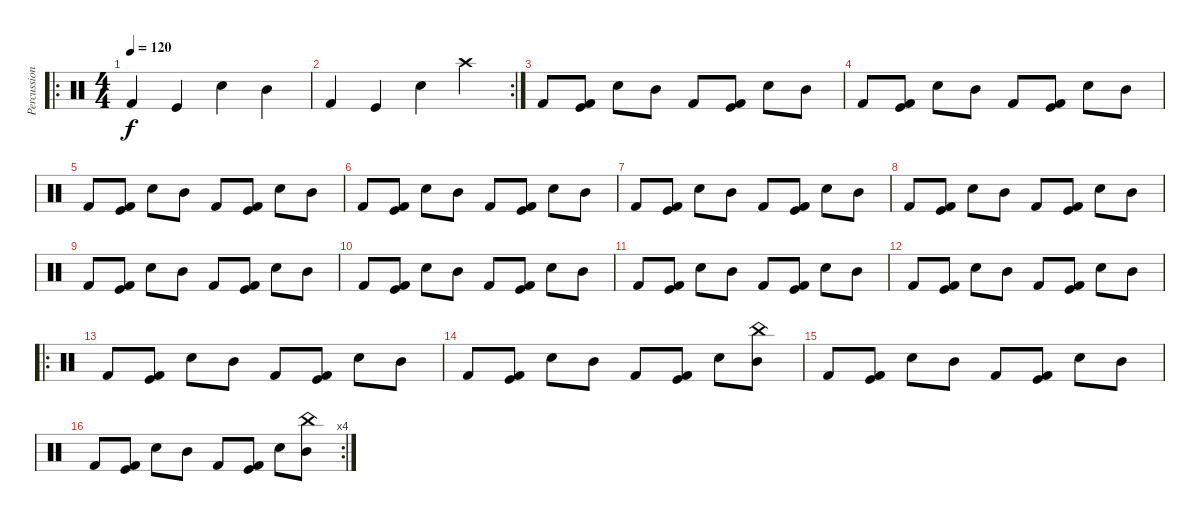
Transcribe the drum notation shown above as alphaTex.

\track ("Percussion" "Percussion") {instrument percussion}
\staff {score}
\articulation defaults
\ro
\ts (4 4)
\tempo 120
\clef neutral
\ks c "Kick (hit) 2".4{dy f} "Kick (hit)".4 "Snare (hit) 2".4 "Mid Tom (hit)".4
|
\rc 2 "Kick (hit) 2".4 "Kick (hit)".4 "Snare (hit) 2".4 "Crash high (hit)".4
|
"Kick (hit) 2".8 ("Kick (hit)" "Kick (hit) 2").8 "Snare (hit) 2".8 "Mid Tom (hit)".8 "Kick (hit) 2".8 ("Kick (hit)" "Kick (hit) 2").8 "Snare (hit) 2".8 "Mid Tom (hit)".8 |
"Kick (hit) 2".8 ("Kick (hit)" "Kick (hit) 2").8 "Snare (hit) 2".8 "Mid Tom (hit)".8 "Kick (hit) 2".8 ("Kick (hit)" "Kick (hit) 2").8 "Snare (hit) 2".8 "Mid Tom (hit)".8 |
"Kick (hit) 2".8 ("Kick (hit)" "Kick (hit) 2").8 "Snare (hit) 2".8 "Mid Tom (hit)".8 "Kick (hit) 2".8 ("Kick (hit)" "Kick (hit) 2").8 "Snare (hit) 2".8 "Mid Tom (hit)".8 |
"Kick (hit) 2".8 ("Kick (hit)" "Kick (hit) 2").8 "Snare (hit) 2".8 "Mid Tom (hit)".8 "Kick (hit) 2".8 ("Kick (hit)" "Kick (hit) 2").8 "Snare (hit) 2".8 "Mid Tom (hit)".8 |
"Kick (hit) 2".8 ("Kick (hit)" "Kick (hit) 2").8 "Snare (hit) 2".8 "Mid Tom (hit)".8 "Kick (hit) 2".8 ("Kick (hit)" "Kick (hit) 2").8 "Snare (hit) 2".8 "Mid Tom (hit)".8 |
"Kick (hit) 2".8 ("Kick (hit)" "Kick (hit) 2").8 "Snare (hit) 2".8 "Mid Tom (hit)".8 "Kick (hit) 2".8 ("Kick (hit)" "Kick (hit) 2").8 "Snare (hit) 2".8 "Mid Tom (hit)".8 |
"Kick (hit) 2".8 ("Kick (hit)" "Kick (hit) 2").8 "Snare (hit) 2".8 "Mid Tom (hit)".8 "Kick (hit) 2".8 ("Kick (hit)" "Kick (hit) 2").8 "Snare (hit) 2".8 "Mid Tom (hit)".8 |
"Kick (hit) 2".8 ("Kick (hit)" "Kick (hit) 2").8 "Snare (hit) 2".8 "Mid Tom (hit)".8 "Kick (hit) 2".8 ("Kick (hit)" "Kick (hit) 2").8 "Snare (hit) 2".8 "Mid Tom (hit)".8 |
"Kick (hit) 2".8 ("Kick (hit)" "Kick (hit) 2").8 "Snare (hit) 2".8 "Mid Tom (hit)".8 "Kick (hit) 2".8 ("Kick (hit)" "Kick (hit) 2").8 "Snare (hit) 2".8 "Mid Tom (hit)".8 |
"Kick (hit) 2".8 ("Kick (hit)" "Kick (hit) 2").8 "Snare (hit) 2".8 "Mid Tom (hit)".8 "Kick (hit) 2".8 ("Kick (hit)" "Kick (hit) 2").8 "Snare (hit) 2".8 "Mid Tom (hit)".8 |
\ro "Kick (hit) 2".8
("Kick (hit)" "Kick (hit) 2").8 "Snare (hit) 2".8 "Mid Tom (hit)".8 "Kick (hit) 2".8 ("Kick (hit)" "Kick (hit) 2").8 "Snare (hit) 2".8 "Mid Tom (hit)".8 |
"Kick (hit) 2".8 ("Kick (hit)" "Kick (hit) 2").8 "Snare (hit) 2".8 "Mid Tom (hit)".8 "Kick (hit) 2".8 ("Kick (hit)" "Kick (hit) 2").8 "Snare (hit) 2".8 ("China (hit)" "Mid Tom (hit)").8 |
"Kick (hit) 2".8 ("Kick (hit)" "Kick (hit) 2").8 "Snare (hit) 2".8 "Mid Tom (hit)".8 "Kick (hit) 2".8 ("Kick (hit)" "Kick (hit) 2").8 "Snare (hit) 2".8 "Mid Tom (hit)".8 |
\rc 4 "Kick (hit) 2".8
("Kick (hit)" "Kick (hit) 2").8 "Snare (hit) 2".8 "Mid Tom (hit)".8 "Kick (hit) 2".8 ("Kick (hit)" "Kick (hit) 2").8 "Snare (hit) 2".8 ("China (hit)" "Mid Tom (hit)").8
